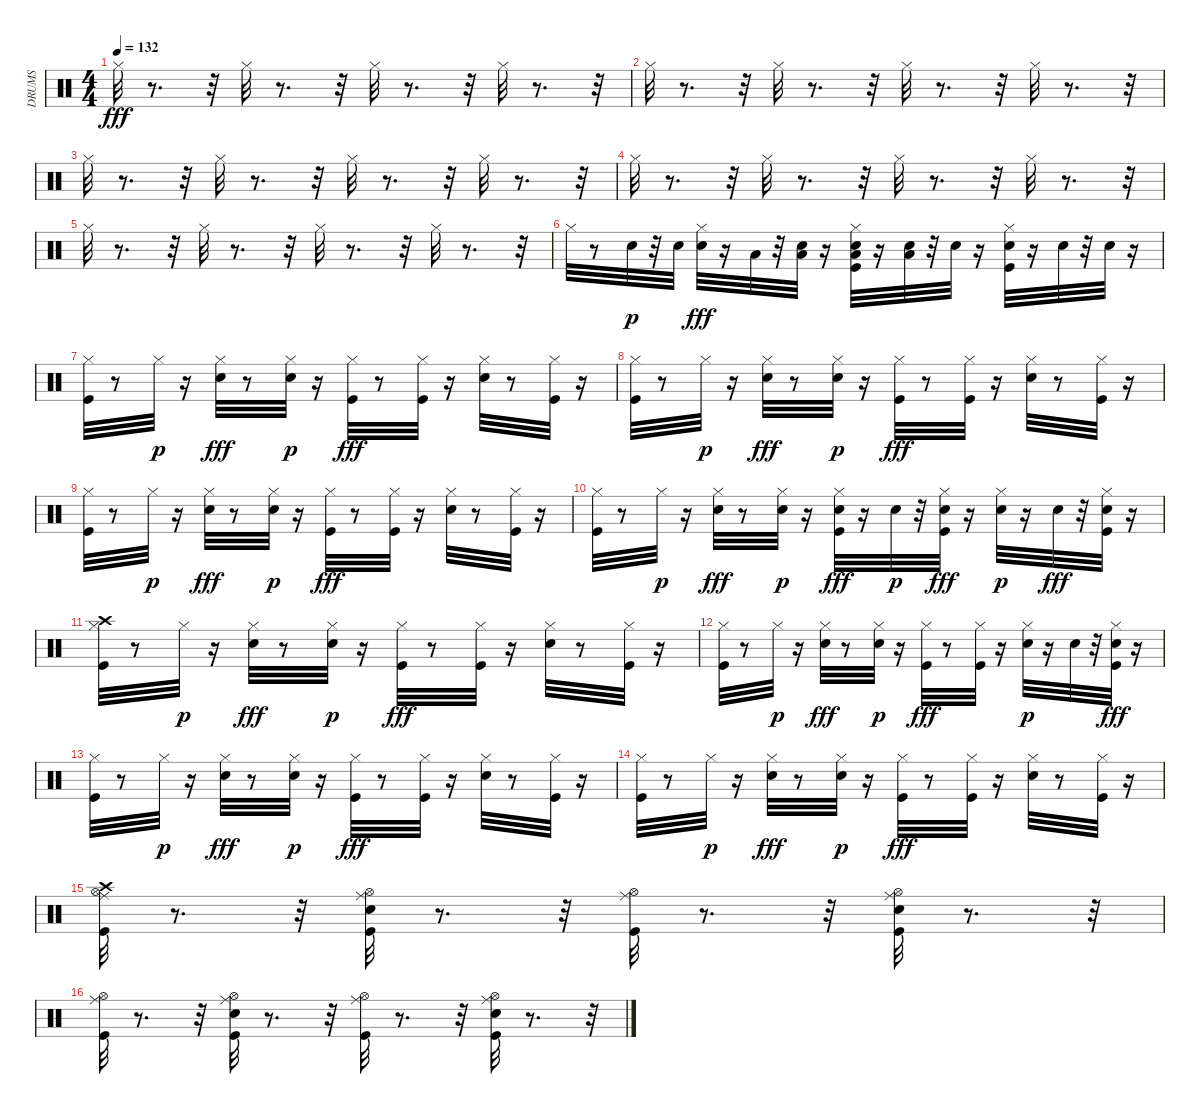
\track ("DRUMS" "DRUMS") {instrument percussion}
\staff {score}
\articulation defaults
\ts (4 4)
\tempo 132
\clef neutral
\ks c "Hi-Hat (closed)".32{dy fff}
r.8{d} r.32 "Hi-Hat (closed)".32 r.8{d} r.32 "Hi-Hat (closed)".32 r.8{d} r.32 "Hi-Hat (closed)".32 r.8{d} r.32 |
"Hi-Hat (closed)".32 r.8{d} r.32 "Hi-Hat (closed)".32 r.8{d} r.32 "Hi-Hat (closed)".32 r.8{d} r.32 "Hi-Hat (closed)".32 r.8{d} r.32 |
"Hi-Hat (closed)".32 r.8{d} r.32 "Hi-Hat (closed)".32 r.8{d} r.32 "Hi-Hat (closed)".32 r.8{d} r.32 "Hi-Hat (closed)".32 r.8{d} r.32 |
"Hi-Hat (closed)".32 r.8{d} r.32 "Hi-Hat (closed)".32 r.8{d} r.32 "Hi-Hat (closed)".32 r.8{d} r.32 "Hi-Hat (closed)".32 r.8{d} r.32 |
"Hi-Hat (closed)".32 r.8{d} r.32 "Hi-Hat (closed)".32 r.8{d} r.32 "Hi-Hat (closed)".32 r.8{d} r.32 "Hi-Hat (closed)".32 r.8{d} r.32 |
"Hi-Hat (closed)".32 r.8 "Snare (hit) 2".32{dy p} r.32 "Snare (hit) 2".32 ("Hi-Hat (closed)" "Snare (hit) 2").32{dy fff} r.16 "Low Tom (hit)".32 r.32 ("Snare (hit) 2" "Low Tom (hit)").32 r.16 ("Hi-Hat (closed)" "Snare (hit) 2" "Kick (hit)" "Low Floor Tom (hit)").32 r.16 ("Snare (hit) 2" "Low Floor Tom (hit)").32 r.32 "Snare (hit) 2".32 r.16 ("Hi-Hat (closed)" "Snare (hit) 2" "Kick (hit)").32 r.16 "Snare (hit) 2".32 r.32 "Snare (hit) 2".32 r.16 |
("Hi-Hat (closed)" "Kick (hit)").32 r.8 "Hi-Hat (closed)".32{dy p} r.16 ("Hi-Hat (closed)" "Snare (hit) 2").32{dy fff} r.8 ("Hi-Hat (closed)" "Snare (hit) 2").32{dy p} r.16 ("Hi-Hat (closed)" "Kick (hit)").32{dy fff} r.8 ("Hi-Hat (closed)" "Kick (hit)").32 r.16 ("Hi-Hat (closed)" "Snare (hit) 2").32 r.8 ("Hi-Hat (closed)" "Kick (hit)").32 r.16 |
("Hi-Hat (closed)" "Kick (hit)").32 r.8 "Hi-Hat (closed)".32{dy p} r.16 ("Hi-Hat (closed)" "Snare (hit) 2").32{dy fff} r.8 ("Hi-Hat (closed)" "Snare (hit) 2").32{dy p} r.16 ("Hi-Hat (closed)" "Kick (hit)").32{dy fff} r.8 ("Hi-Hat (closed)" "Kick (hit)").32 r.16 ("Hi-Hat (closed)" "Snare (hit) 2").32 r.8 ("Hi-Hat (closed)" "Kick (hit)").32 r.16 |
("Hi-Hat (closed)" "Kick (hit)").32 r.8 "Hi-Hat (closed)".32{dy p} r.16 ("Hi-Hat (closed)" "Snare (hit) 2").32{dy fff} r.8 ("Hi-Hat (closed)" "Snare (hit) 2").32{dy p} r.16 ("Hi-Hat (closed)" "Kick (hit)").32{dy fff} r.8 ("Hi-Hat (closed)" "Kick (hit)").32 r.16 ("Hi-Hat (closed)" "Snare (hit) 2").32 r.8 ("Hi-Hat (closed)" "Kick (hit)").32 r.16 |
("Hi-Hat (closed)" "Kick (hit)").32 r.8 "Hi-Hat (closed)".32{dy p} r.16 ("Hi-Hat (closed)" "Snare (hit) 2").32{dy fff} r.8 ("Hi-Hat (closed)" "Snare (hit) 2").32{dy p} r.16 ("Hi-Hat (closed)" "Snare (hit) 2" "Kick (hit)").32{dy fff} r.16 "Snare (hit) 2".32{dy p} r.32 ("Hi-Hat (closed)" "Snare (hit) 2" "Kick (hit)").32{dy fff} r.16 ("Hi-Hat (closed)" "Snare (hit) 2").32{dy p} r.16 "Snare (hit) 2".32{dy fff} r.32 ("Hi-Hat (closed)" "Snare (hit) 2" "Kick (hit)").32 r.16 |
("Hi-Hat (closed)" "Kick (hit)" "Crash high (hit)").32 r.8 "Hi-Hat (closed)".32{dy p} r.16 ("Hi-Hat (closed)" "Snare (hit) 2").32{dy fff} r.8 ("Hi-Hat (closed)" "Snare (hit) 2").32{dy p} r.16 ("Hi-Hat (closed)" "Kick (hit)").32{dy fff} r.8 ("Hi-Hat (closed)" "Kick (hit)").32 r.16 ("Hi-Hat (closed)" "Snare (hit) 2").32 r.8 ("Hi-Hat (closed)" "Kick (hit)").32 r.16 |
("Hi-Hat (closed)" "Kick (hit)").32 r.8 "Hi-Hat (closed)".32{dy p} r.16 ("Hi-Hat (closed)" "Snare (hit) 2").32{dy fff} r.8 ("Hi-Hat (closed)" "Snare (hit) 2").32{dy p} r.16 ("Hi-Hat (closed)" "Kick (hit)").32{dy fff} r.8 ("Hi-Hat (closed)" "Kick (hit)").32 r.16 ("Hi-Hat (closed)" "Snare (hit) 2").32{dy p} r.16 "Snare (hit) 2".32 r.32 ("Hi-Hat (closed)" "Snare (hit) 2" "Kick (hit)").32{dy fff} r.16 |
("Hi-Hat (closed)" "Kick (hit)").32 r.8 "Hi-Hat (closed)".32{dy p} r.16 ("Hi-Hat (closed)" "Snare (hit) 2").32{dy fff} r.8 ("Hi-Hat (closed)" "Snare (hit) 2").32{dy p} r.16 ("Hi-Hat (closed)" "Kick (hit)").32{dy fff} r.8 ("Hi-Hat (closed)" "Kick (hit)").32 r.16 ("Hi-Hat (closed)" "Snare (hit) 2").32 r.8 ("Hi-Hat (closed)" "Kick (hit)").32 r.16 |
("Hi-Hat (closed)" "Kick (hit)").32 r.8 "Hi-Hat (closed)".32{dy p} r.16 ("Hi-Hat (closed)" "Snare (hit) 2").32{dy fff} r.8 ("Hi-Hat (closed)" "Snare (hit) 2").32{dy p} r.16 ("Hi-Hat (closed)" "Kick (hit)").32{dy fff} r.8 ("Hi-Hat (closed)" "Kick (hit)").32 r.16 ("Hi-Hat (closed)" "Snare (hit) 2").32 r.8 ("Hi-Hat (closed)" "Kick (hit)").32 r.16 |
("Kick (hit)" "Crash high (hit)" "Ride (middle)" "Hi-Hat (open)").32 r.8{d} r.32 ("Snare (hit) 2" "Kick (hit)" "Ride (middle)" "Hi-Hat (open)").32 r.8{d} r.32 ("Kick (hit)" "Ride (middle)" "Hi-Hat (open)").32 r.8{d} r.32 ("Snare (hit) 2" "Kick (hit)" "Ride (middle)" "Hi-Hat (open)").32 r.8{d} r.32 |
("Kick (hit)" "Ride (middle)" "Hi-Hat (open)").32 r.8{d} r.32 ("Snare (hit) 2" "Kick (hit)" "Ride (middle)" "Hi-Hat (open)").32 r.8{d} r.32 ("Kick (hit)" "Ride (middle)" "Hi-Hat (open)").32 r.8{d} r.32 ("Snare (hit) 2" "Kick (hit)" "Ride (middle)" "Hi-Hat (open)").32 r.8{d} r.32
